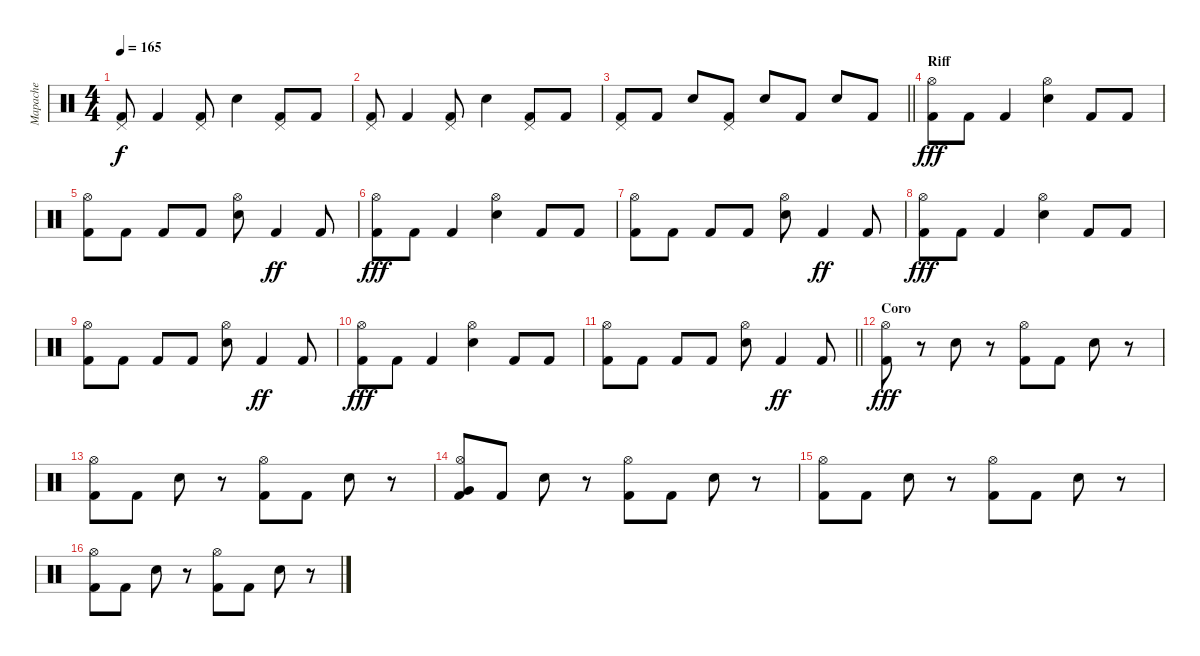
\track ("Mapache" "Mapache") {instrument percussion}
\staff
\articulation defaults
\ts (4 4)
\tempo 165
\clef neutral
\ks c
("Pedal Hi-Hat (hit)" "Kick (hit) 2").8{dy f} "Kick (hit) 2".4 ("Pedal Hi-Hat (hit)" "Kick (hit) 2").8 "Electric Snare (hit)".4 ("Pedal Hi-Hat (hit)" "Kick (hit) 2").8 "Kick (hit) 2".8 |
("Pedal Hi-Hat (hit)" "Kick (hit) 2").8 "Kick (hit) 2".4 ("Pedal Hi-Hat (hit)" "Kick (hit) 2").8 "Electric Snare (hit)".4 ("Pedal Hi-Hat (hit)" "Kick (hit) 2").8 "Kick (hit) 2".8 |
\barLineRight lightlight
("Pedal Hi-Hat (hit)" "Kick (hit) 2").8 "Kick (hit) 2".8 "Electric Snare (hit)".8 ("Pedal Hi-Hat (hit)" "Kick (hit) 2").8 "Electric Snare (hit)".8 "Kick (hit) 2".8 "Electric Snare (hit)".8 "Kick (hit) 2".8 |
\section ("" "Riff")
("Hi-Hat (open)" "Kick (hit) 2").8{dy fff} "Kick (hit) 2".8 "Kick (hit) 2".4 ("Hi-Hat (open)" "Electric Snare (hit)").4 "Kick (hit) 2".8 "Kick (hit) 2".8 |
("Hi-Hat (open)" "Kick (hit) 2").8 "Kick (hit) 2".8 "Kick (hit) 2".8 "Kick (hit) 2".8 ("Hi-Hat (open)" "Electric Snare (hit)").8 "Kick (hit) 2".4{dy ff} "Kick (hit) 2".8 |
("Hi-Hat (open)" "Kick (hit) 2").8{dy fff} "Kick (hit) 2".8 "Kick (hit) 2".4 ("Hi-Hat (open)" "Electric Snare (hit)").4 "Kick (hit) 2".8 "Kick (hit) 2".8 |
("Hi-Hat (open)" "Kick (hit) 2").8 "Kick (hit) 2".8 "Kick (hit) 2".8 "Kick (hit) 2".8 ("Hi-Hat (open)" "Electric Snare (hit)").8 "Kick (hit) 2".4{dy ff} "Kick (hit) 2".8 |
("Hi-Hat (open)" "Kick (hit) 2").8{dy fff} "Kick (hit) 2".8 "Kick (hit) 2".4 ("Hi-Hat (open)" "Electric Snare (hit)").4 "Kick (hit) 2".8 "Kick (hit) 2".8 |
("Hi-Hat (open)" "Kick (hit) 2").8 "Kick (hit) 2".8 "Kick (hit) 2".8 "Kick (hit) 2".8 ("Hi-Hat (open)" "Electric Snare (hit)").8 "Kick (hit) 2".4{dy ff} "Kick (hit) 2".8 |
("Hi-Hat (open)" "Kick (hit) 2").8{dy fff} "Kick (hit) 2".8 "Kick (hit) 2".4 ("Hi-Hat (open)" "Electric Snare (hit)").4 "Kick (hit) 2".8 "Kick (hit) 2".8 |
\barLineRight lightlight
("Hi-Hat (open)" "Kick (hit) 2").8 "Kick (hit) 2".8 "Kick (hit) 2".8 "Kick (hit) 2".8 ("Hi-Hat (open)" "Electric Snare (hit)").8 "Kick (hit) 2".4{dy ff} "Kick (hit) 2".8 |
\section ("" "Coro")
("Hi-Hat (open)" "Kick (hit) 2").8{dy fff} r.8 "Electric Snare (hit)".8 r.8 ("Hi-Hat (open)" "Kick (hit) 2").8 "Kick (hit) 2".8 "Electric Snare (hit)".8 r.8 |
("Hi-Hat (open)" "Kick (hit) 2").8 "Kick (hit) 2".8 "Electric Snare (hit)".8 r.8 ("Hi-Hat (open)" "Kick (hit) 2").8 "Kick (hit) 2".8 "Electric Snare (hit)".8 r.8 |
("Hi-Hat (open)" "Very Low Tom (hit)" "Kick (hit) 2").8 "Kick (hit) 2".8 "Electric Snare (hit)".8 r.8 ("Hi-Hat (open)" "Kick (hit) 2").8 "Kick (hit) 2".8 "Electric Snare (hit)".8 r.8 |
("Hi-Hat (open)" "Kick (hit) 2").8 "Kick (hit) 2".8 "Electric Snare (hit)".8 r.8 ("Hi-Hat (open)" "Kick (hit) 2").8 "Kick (hit) 2".8 "Electric Snare (hit)".8 r.8 |
("Hi-Hat (open)" "Kick (hit) 2").8 "Kick (hit) 2".8 "Electric Snare (hit)".8 r.8 ("Hi-Hat (open)" "Kick (hit) 2").8 "Kick (hit) 2".8 "Electric Snare (hit)".8 r.8
